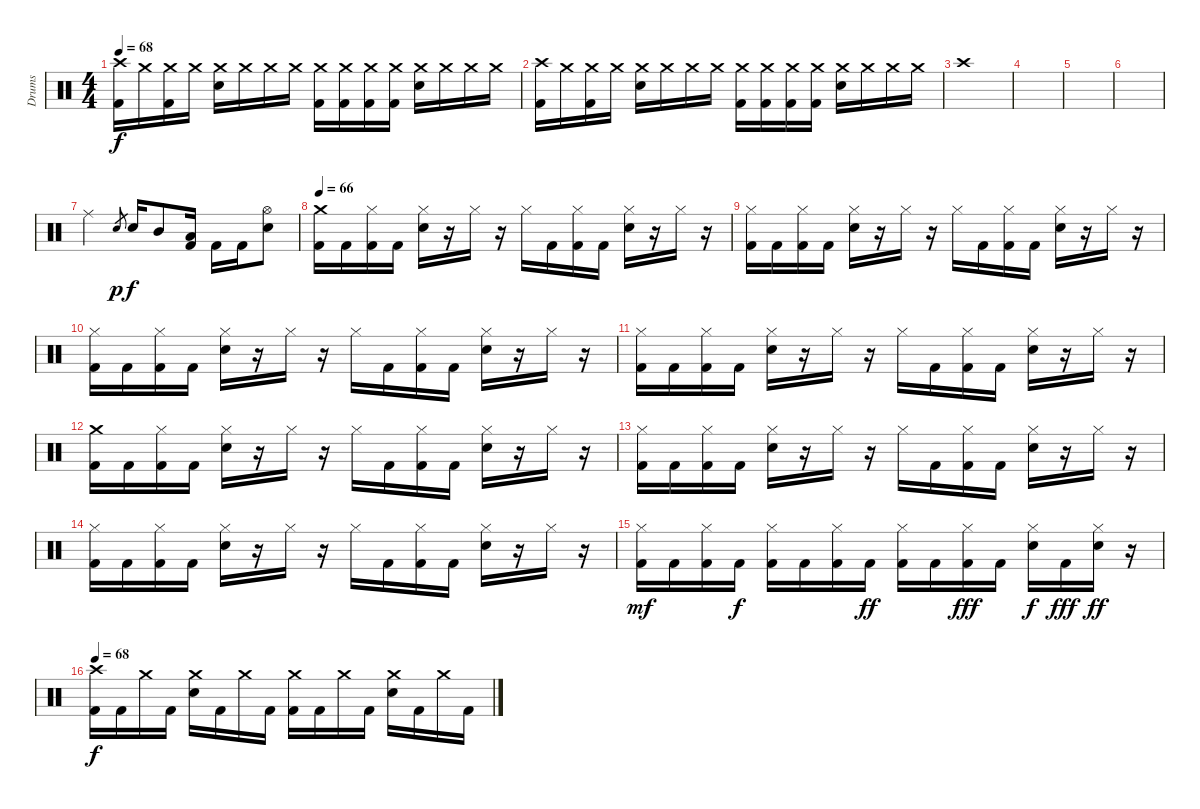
\track ("Drums" "Drums") {instrument percussion}
\staff {score}
\articulation defaults
\ts (4 4)
\tempo 68
\clef neutral
\ks c
("Crash high (hit)" "Kick (hit) 2").16{dy f} "Crash medium (hit)".16 ("Crash medium (hit)" "Kick (hit) 2").16 "Crash medium (hit)".16 ("Crash medium (hit)" "Electric Snare (hit)").16 "Crash medium (hit)".16 "Crash medium (hit)".16 "Crash medium (hit)".16 ("Crash medium (hit)" "Kick (hit) 2").16 ("Crash medium (hit)" "Kick (hit) 2").16 ("Crash medium (hit)" "Kick (hit) 2").16 ("Crash medium (hit)" "Kick (hit) 2").16 ("Crash medium (hit)" "Electric Snare (hit)").16 "Crash medium (hit)".16 "Crash medium (hit)".16 "Crash medium (hit)".16 |
("Crash high (hit)" "Kick (hit) 2").16 "Crash medium (hit)".16 ("Crash medium (hit)" "Kick (hit) 2").16 "Crash medium (hit)".16 ("Crash medium (hit)" "Electric Snare (hit)").16 "Crash medium (hit)".16 "Crash medium (hit)".16 "Crash medium (hit)".16 ("Crash medium (hit)" "Kick (hit) 2").16 ("Crash medium (hit)" "Kick (hit) 2").16 ("Crash medium (hit)" "Kick (hit) 2").16 ("Crash medium (hit)" "Kick (hit) 2").16 ("Crash medium (hit)" "Electric Snare (hit)").16 "Crash medium (hit)".16 "Crash medium (hit)".16 "Crash medium (hit)".16 |
"Crash high (hit)".1 |
|
|
|
"Ride (middle)".2 "Electric Snare (hit)".8{gr dy p} "Electric Snare (hit)".16{dy f} "Mid Tom (hit)".8 ("Low Tom (hit)" "Kick (hit) 2").16 "Kick (hit) 2".16 "Kick (hit) 2".16 ("Hi-Hat (open)" "Electric Snare (hit)").8 |
\tempo 66
("Crash medium (hit)" "Kick (hit) 2").16 "Kick (hit) 2".16 ("Hi-Hat (closed)" "Kick (hit) 2").16 "Kick (hit) 2".16 ("Hi-Hat (closed)" "Electric Snare (hit)").16 r.16 "Hi-Hat (closed)".16 r.16 "Hi-Hat (closed)".16 "Kick (hit) 2".16 ("Hi-Hat (closed)" "Kick (hit) 2").16 "Kick (hit) 2".16 ("Hi-Hat (closed)" "Electric Snare (hit)").16 r.16 "Hi-Hat (closed)".16 r.16 |
("Hi-Hat (closed)" "Kick (hit) 2").16 "Kick (hit) 2".16 ("Hi-Hat (closed)" "Kick (hit) 2").16 "Kick (hit) 2".16 ("Hi-Hat (closed)" "Electric Snare (hit)").16 r.16 "Hi-Hat (closed)".16 r.16 "Hi-Hat (closed)".16 "Kick (hit) 2".16 ("Hi-Hat (closed)" "Kick (hit) 2").16 "Kick (hit) 2".16 ("Hi-Hat (closed)" "Electric Snare (hit)").16 r.16 "Hi-Hat (closed)".16 r.16 |
("Hi-Hat (closed)" "Kick (hit) 2").16 "Kick (hit) 2".16 ("Hi-Hat (closed)" "Kick (hit) 2").16 "Kick (hit) 2".16 ("Hi-Hat (closed)" "Electric Snare (hit)").16 r.16 "Hi-Hat (closed)".16 r.16 "Hi-Hat (closed)".16 "Kick (hit) 2".16 ("Hi-Hat (closed)" "Kick (hit) 2").16 "Kick (hit) 2".16 ("Hi-Hat (closed)" "Electric Snare (hit)").16 r.16 "Hi-Hat (closed)".16 r.16 |
("Hi-Hat (closed)" "Kick (hit) 2").16 "Kick (hit) 2".16 ("Hi-Hat (closed)" "Kick (hit) 2").16 "Kick (hit) 2".16 ("Hi-Hat (closed)" "Electric Snare (hit)").16 r.16 "Hi-Hat (closed)".16 r.16 "Hi-Hat (closed)".16 "Kick (hit) 2".16 ("Hi-Hat (closed)" "Kick (hit) 2").16 "Kick (hit) 2".16 ("Hi-Hat (closed)" "Electric Snare (hit)").16 r.16 "Hi-Hat (closed)".16 r.16 |
("Crash medium (hit)" "Kick (hit) 2").16 "Kick (hit) 2".16 ("Hi-Hat (closed)" "Kick (hit) 2").16 "Kick (hit) 2".16 ("Hi-Hat (closed)" "Electric Snare (hit)").16 r.16 "Hi-Hat (closed)".16 r.16 "Hi-Hat (closed)".16 "Kick (hit) 2".16 ("Hi-Hat (closed)" "Kick (hit) 2").16 "Kick (hit) 2".16 ("Hi-Hat (closed)" "Electric Snare (hit)").16 r.16 "Hi-Hat (closed)".16 r.16 |
("Hi-Hat (closed)" "Kick (hit) 2").16 "Kick (hit) 2".16 ("Hi-Hat (closed)" "Kick (hit) 2").16 "Kick (hit) 2".16 ("Hi-Hat (closed)" "Electric Snare (hit)").16 r.16 "Hi-Hat (closed)".16 r.16 "Hi-Hat (closed)".16 "Kick (hit) 2".16 ("Hi-Hat (closed)" "Kick (hit) 2").16 "Kick (hit) 2".16 ("Hi-Hat (closed)" "Electric Snare (hit)").16 r.16 "Hi-Hat (closed)".16 r.16 |
("Hi-Hat (closed)" "Kick (hit) 2").16 "Kick (hit) 2".16 ("Hi-Hat (closed)" "Kick (hit) 2").16 "Kick (hit) 2".16 ("Hi-Hat (closed)" "Electric Snare (hit)").16 r.16 "Hi-Hat (closed)".16 r.16 "Hi-Hat (closed)".16 "Kick (hit) 2".16 ("Hi-Hat (closed)" "Kick (hit) 2").16 "Kick (hit) 2".16 ("Hi-Hat (closed)" "Electric Snare (hit)").16 r.16 "Hi-Hat (closed)".16 r.16 |
("Hi-Hat (closed)" "Kick (hit) 2").16{dy mf} "Kick (hit) 2".16 ("Hi-Hat (closed)" "Kick (hit) 2").16 "Kick (hit) 2".16{dy f} ("Hi-Hat (closed)" "Kick (hit) 2").16 "Kick (hit) 2".16 ("Hi-Hat (closed)" "Kick (hit) 2").16 "Kick (hit) 2".16{dy ff} ("Hi-Hat (closed)" "Kick (hit) 2").16 "Kick (hit) 2".16 ("Hi-Hat (closed)" "Kick (hit) 2").16{dy fff} "Kick (hit) 2".16 ("Hi-Hat (closed)" "Electric Snare (hit)").16{dy f} "Kick (hit) 2".16{dy fff} ("Hi-Hat (closed)" "Electric Snare (hit)").16{dy ff} r.16 |
\tempo 68
("Crash high (hit)" "Kick (hit) 2").16{dy f} "Kick (hit) 2".16 "Crash medium (hit)".16 "Kick (hit) 2".16 ("Crash medium (hit)" "Electric Snare (hit)").16 "Kick (hit) 2".16 "Crash medium (hit)".16 "Kick (hit) 2".16 ("Crash medium (hit)" "Kick (hit) 2").16 "Kick (hit) 2".16 "Crash medium (hit)".16 "Kick (hit) 2".16 ("Crash medium (hit)" "Electric Snare (hit)").16 "Kick (hit) 2".16 "Crash medium (hit)".16 "Kick (hit) 2".16
